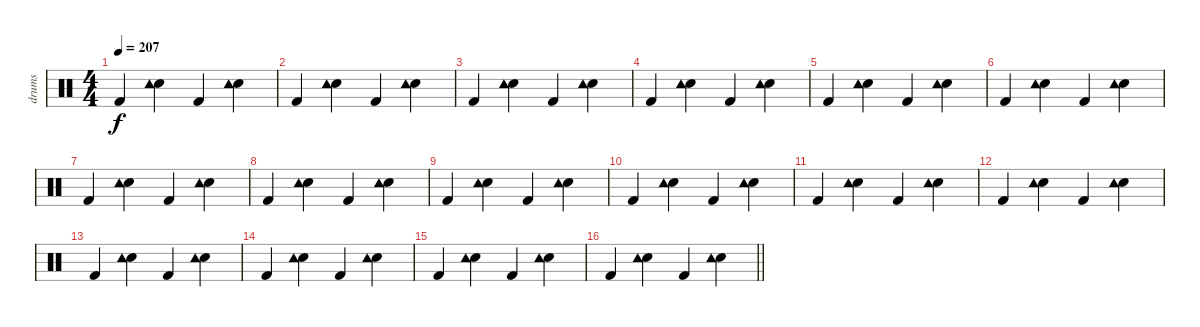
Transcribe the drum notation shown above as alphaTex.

\track ("drums" "drums") {instrument percussion}
\staff {score}
\articulation defaults
\ts (4 4)
\tempo 207
\clef neutral
\ks c "Kick (hit) 2".4{dy f}
("Electric Snare (hit)" "Tambourine (hit)").4 "Kick (hit) 2".4 ("Electric Snare (hit)" "Tambourine (hit)").4 |
"Kick (hit) 2".4 ("Electric Snare (hit)" "Tambourine (hit)").4 "Kick (hit) 2".4 ("Electric Snare (hit)" "Tambourine (hit)").4 |
"Kick (hit) 2".4 ("Electric Snare (hit)" "Tambourine (hit)").4 "Kick (hit) 2".4 ("Electric Snare (hit)" "Tambourine (hit)").4 |
"Kick (hit) 2".4 ("Electric Snare (hit)" "Tambourine (hit)").4 "Kick (hit) 2".4 ("Electric Snare (hit)" "Tambourine (hit)").4 |
"Kick (hit) 2".4 ("Electric Snare (hit)" "Tambourine (hit)").4 "Kick (hit) 2".4 ("Electric Snare (hit)" "Tambourine (hit)").4 |
"Kick (hit) 2".4 ("Electric Snare (hit)" "Tambourine (hit)").4 "Kick (hit) 2".4 ("Electric Snare (hit)" "Tambourine (hit)").4 |
"Kick (hit) 2".4 ("Electric Snare (hit)" "Tambourine (hit)").4 "Kick (hit) 2".4 ("Electric Snare (hit)" "Tambourine (hit)").4 |
"Kick (hit) 2".4 ("Electric Snare (hit)" "Tambourine (hit)").4 "Kick (hit) 2".4 ("Electric Snare (hit)" "Tambourine (hit)").4 |
"Kick (hit) 2".4 ("Electric Snare (hit)" "Tambourine (hit)").4 "Kick (hit) 2".4 ("Electric Snare (hit)" "Tambourine (hit)").4 |
"Kick (hit) 2".4 ("Electric Snare (hit)" "Tambourine (hit)").4 "Kick (hit) 2".4 ("Electric Snare (hit)" "Tambourine (hit)").4 |
"Kick (hit) 2".4 ("Electric Snare (hit)" "Tambourine (hit)").4 "Kick (hit) 2".4 ("Electric Snare (hit)" "Tambourine (hit)").4 |
"Kick (hit) 2".4 ("Electric Snare (hit)" "Tambourine (hit)").4 "Kick (hit) 2".4 ("Electric Snare (hit)" "Tambourine (hit)").4 |
"Kick (hit) 2".4 ("Electric Snare (hit)" "Tambourine (hit)").4 "Kick (hit) 2".4 ("Electric Snare (hit)" "Tambourine (hit)").4 |
"Kick (hit) 2".4 ("Electric Snare (hit)" "Tambourine (hit)").4 "Kick (hit) 2".4 ("Electric Snare (hit)" "Tambourine (hit)").4 |
"Kick (hit) 2".4 ("Electric Snare (hit)" "Tambourine (hit)").4 "Kick (hit) 2".4 ("Electric Snare (hit)" "Tambourine (hit)").4 |
\barLineRight lightlight "Kick (hit) 2".4
("Electric Snare (hit)" "Tambourine (hit)").4 "Kick (hit) 2".4 ("Electric Snare (hit)" "Tambourine (hit)").4
